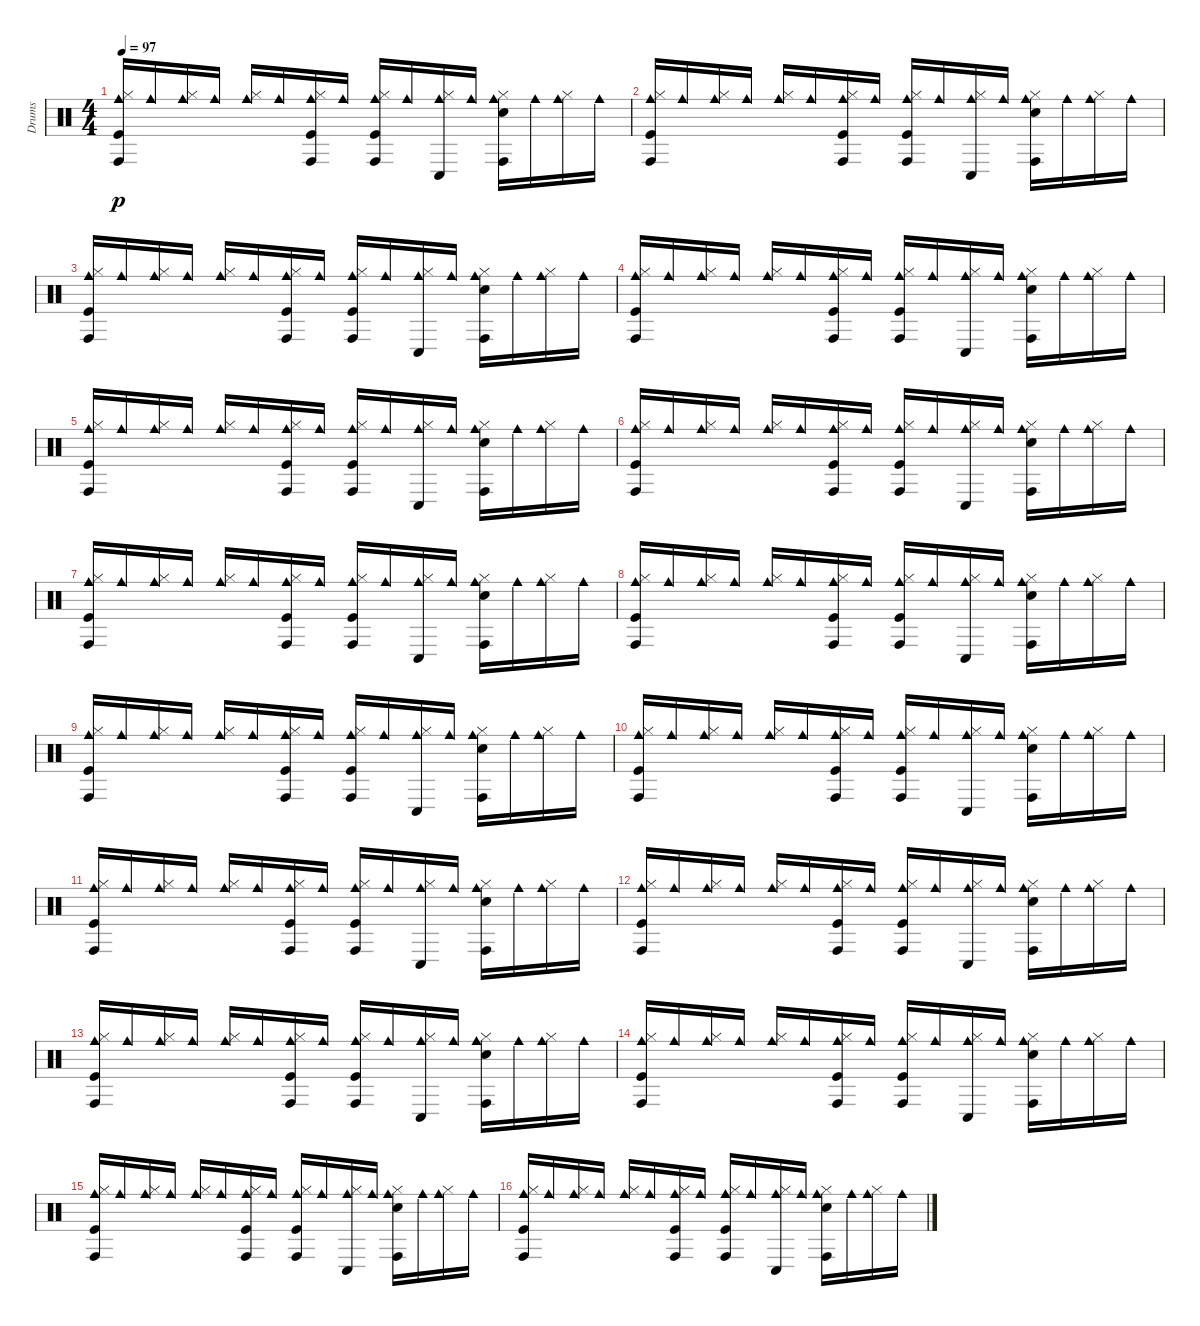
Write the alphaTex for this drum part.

\track ("Drums" "Drums") {instrument percussion}
\staff {score}
\articulation defaults
\ts (4 4)
\tempo 97
\clef neutral
\ks c
("Kick (hit)" "Hi-Hat (closed)" "Cowbell medium (hit)" "Conga high (hit)").16{dy p} "Cowbell medium (hit)".16 ("Hi-Hat (closed)" "Cowbell medium (hit)").16 "Cowbell medium (hit)".16 ("Hi-Hat (closed)" "Cowbell medium (hit)").16 "Cowbell medium (hit)".16 ("Kick (hit)" "Hi-Hat (closed)" "Cowbell medium (hit)" "Conga high (hit)").16 "Cowbell medium (hit)".16 ("Kick (hit)" "Hi-Hat (closed)" "Cowbell medium (hit)" "Conga high (hit)").16 "Cowbell medium (hit)".16 ("Conga low (hit)" "Hi-Hat (closed)" "Cowbell medium (hit)").16 "Cowbell medium (hit)".16 ("Conga high (hit)" "Snare (hit) 2" "Hi-Hat (closed)" "Cowbell medium (hit)").16 "Cowbell medium (hit)".16 ("Hi-Hat (closed)" "Cowbell medium (hit)").16 "Cowbell medium (hit)".16 |
("Kick (hit)" "Hi-Hat (closed)" "Cowbell medium (hit)" "Conga high (hit)").16 "Cowbell medium (hit)".16 ("Hi-Hat (closed)" "Cowbell medium (hit)").16 "Cowbell medium (hit)".16 ("Hi-Hat (closed)" "Cowbell medium (hit)").16 "Cowbell medium (hit)".16 ("Kick (hit)" "Hi-Hat (closed)" "Cowbell medium (hit)" "Conga high (hit)").16 "Cowbell medium (hit)".16 ("Kick (hit)" "Hi-Hat (closed)" "Cowbell medium (hit)" "Conga high (hit)").16 "Cowbell medium (hit)".16 ("Conga low (hit)" "Hi-Hat (closed)" "Cowbell medium (hit)").16 "Cowbell medium (hit)".16 ("Conga high (hit)" "Snare (hit) 2" "Hi-Hat (closed)" "Cowbell medium (hit)").16 "Cowbell medium (hit)".16 ("Hi-Hat (closed)" "Cowbell medium (hit)").16 "Cowbell medium (hit)".16 |
("Kick (hit)" "Hi-Hat (closed)" "Cowbell medium (hit)" "Conga high (hit)").16 "Cowbell medium (hit)".16 ("Hi-Hat (closed)" "Cowbell medium (hit)").16 "Cowbell medium (hit)".16 ("Hi-Hat (closed)" "Cowbell medium (hit)").16 "Cowbell medium (hit)".16 ("Kick (hit)" "Hi-Hat (closed)" "Cowbell medium (hit)" "Conga high (hit)").16 "Cowbell medium (hit)".16 ("Kick (hit)" "Hi-Hat (closed)" "Cowbell medium (hit)" "Conga high (hit)").16 "Cowbell medium (hit)".16 ("Conga low (hit)" "Hi-Hat (closed)" "Cowbell medium (hit)").16 "Cowbell medium (hit)".16 ("Conga high (hit)" "Snare (hit) 2" "Hi-Hat (closed)" "Cowbell medium (hit)").16 "Cowbell medium (hit)".16 ("Hi-Hat (closed)" "Cowbell medium (hit)").16 "Cowbell medium (hit)".16 |
("Kick (hit)" "Hi-Hat (closed)" "Cowbell medium (hit)" "Conga high (hit)").16 "Cowbell medium (hit)".16 ("Hi-Hat (closed)" "Cowbell medium (hit)").16 "Cowbell medium (hit)".16 ("Hi-Hat (closed)" "Cowbell medium (hit)").16 "Cowbell medium (hit)".16 ("Kick (hit)" "Hi-Hat (closed)" "Cowbell medium (hit)" "Conga high (hit)").16 "Cowbell medium (hit)".16 ("Kick (hit)" "Hi-Hat (closed)" "Cowbell medium (hit)" "Conga high (hit)").16 "Cowbell medium (hit)".16 ("Conga low (hit)" "Hi-Hat (closed)" "Cowbell medium (hit)").16 "Cowbell medium (hit)".16 ("Conga high (hit)" "Snare (hit) 2" "Hi-Hat (closed)" "Cowbell medium (hit)").16 "Cowbell medium (hit)".16 ("Hi-Hat (closed)" "Cowbell medium (hit)").16 "Cowbell medium (hit)".16 |
("Kick (hit)" "Hi-Hat (closed)" "Cowbell medium (hit)" "Conga high (hit)").16 "Cowbell medium (hit)".16 ("Hi-Hat (closed)" "Cowbell medium (hit)").16 "Cowbell medium (hit)".16 ("Hi-Hat (closed)" "Cowbell medium (hit)").16 "Cowbell medium (hit)".16 ("Kick (hit)" "Hi-Hat (closed)" "Cowbell medium (hit)" "Conga high (hit)").16 "Cowbell medium (hit)".16 ("Kick (hit)" "Hi-Hat (closed)" "Cowbell medium (hit)" "Conga high (hit)").16 "Cowbell medium (hit)".16 ("Conga low (hit)" "Hi-Hat (closed)" "Cowbell medium (hit)").16 "Cowbell medium (hit)".16 ("Conga high (hit)" "Snare (hit) 2" "Hi-Hat (closed)" "Cowbell medium (hit)").16 "Cowbell medium (hit)".16 ("Hi-Hat (closed)" "Cowbell medium (hit)").16 "Cowbell medium (hit)".16 |
("Kick (hit)" "Hi-Hat (closed)" "Cowbell medium (hit)" "Conga high (hit)").16 "Cowbell medium (hit)".16 ("Hi-Hat (closed)" "Cowbell medium (hit)").16 "Cowbell medium (hit)".16 ("Hi-Hat (closed)" "Cowbell medium (hit)").16 "Cowbell medium (hit)".16 ("Kick (hit)" "Hi-Hat (closed)" "Cowbell medium (hit)" "Conga high (hit)").16 "Cowbell medium (hit)".16 ("Kick (hit)" "Hi-Hat (closed)" "Cowbell medium (hit)" "Conga high (hit)").16 "Cowbell medium (hit)".16 ("Conga low (hit)" "Hi-Hat (closed)" "Cowbell medium (hit)").16 "Cowbell medium (hit)".16 ("Conga high (hit)" "Snare (hit) 2" "Hi-Hat (closed)" "Cowbell medium (hit)").16 "Cowbell medium (hit)".16 ("Hi-Hat (closed)" "Cowbell medium (hit)").16 "Cowbell medium (hit)".16 |
("Kick (hit)" "Hi-Hat (closed)" "Cowbell medium (hit)" "Conga high (hit)").16 "Cowbell medium (hit)".16 ("Hi-Hat (closed)" "Cowbell medium (hit)").16 "Cowbell medium (hit)".16 ("Hi-Hat (closed)" "Cowbell medium (hit)").16 "Cowbell medium (hit)".16 ("Kick (hit)" "Hi-Hat (closed)" "Cowbell medium (hit)" "Conga high (hit)").16 "Cowbell medium (hit)".16 ("Kick (hit)" "Hi-Hat (closed)" "Cowbell medium (hit)" "Conga high (hit)").16 "Cowbell medium (hit)".16 ("Conga low (hit)" "Hi-Hat (closed)" "Cowbell medium (hit)").16 "Cowbell medium (hit)".16 ("Conga high (hit)" "Snare (hit) 2" "Hi-Hat (closed)" "Cowbell medium (hit)").16 "Cowbell medium (hit)".16 ("Hi-Hat (closed)" "Cowbell medium (hit)").16 "Cowbell medium (hit)".16 |
("Kick (hit)" "Hi-Hat (closed)" "Cowbell medium (hit)" "Conga high (hit)").16 "Cowbell medium (hit)".16 ("Hi-Hat (closed)" "Cowbell medium (hit)").16 "Cowbell medium (hit)".16 ("Hi-Hat (closed)" "Cowbell medium (hit)").16 "Cowbell medium (hit)".16 ("Kick (hit)" "Hi-Hat (closed)" "Cowbell medium (hit)" "Conga high (hit)").16 "Cowbell medium (hit)".16 ("Kick (hit)" "Hi-Hat (closed)" "Cowbell medium (hit)" "Conga high (hit)").16 "Cowbell medium (hit)".16 ("Conga low (hit)" "Hi-Hat (closed)" "Cowbell medium (hit)").16 "Cowbell medium (hit)".16 ("Conga high (hit)" "Snare (hit) 2" "Hi-Hat (closed)" "Cowbell medium (hit)").16 "Cowbell medium (hit)".16 ("Hi-Hat (closed)" "Cowbell medium (hit)").16 "Cowbell medium (hit)".16 |
("Kick (hit)" "Hi-Hat (closed)" "Cowbell medium (hit)" "Conga high (hit)").16 "Cowbell medium (hit)".16 ("Hi-Hat (closed)" "Cowbell medium (hit)").16 "Cowbell medium (hit)".16 ("Hi-Hat (closed)" "Cowbell medium (hit)").16 "Cowbell medium (hit)".16 ("Kick (hit)" "Hi-Hat (closed)" "Cowbell medium (hit)" "Conga high (hit)").16 "Cowbell medium (hit)".16 ("Kick (hit)" "Hi-Hat (closed)" "Cowbell medium (hit)" "Conga high (hit)").16 "Cowbell medium (hit)".16 ("Conga low (hit)" "Hi-Hat (closed)" "Cowbell medium (hit)").16 "Cowbell medium (hit)".16 ("Conga high (hit)" "Snare (hit) 2" "Hi-Hat (closed)" "Cowbell medium (hit)").16 "Cowbell medium (hit)".16 ("Hi-Hat (closed)" "Cowbell medium (hit)").16 "Cowbell medium (hit)".16 |
("Kick (hit)" "Hi-Hat (closed)" "Cowbell medium (hit)" "Conga high (hit)").16 "Cowbell medium (hit)".16 ("Hi-Hat (closed)" "Cowbell medium (hit)").16 "Cowbell medium (hit)".16 ("Hi-Hat (closed)" "Cowbell medium (hit)").16 "Cowbell medium (hit)".16 ("Kick (hit)" "Hi-Hat (closed)" "Cowbell medium (hit)" "Conga high (hit)").16 "Cowbell medium (hit)".16 ("Kick (hit)" "Hi-Hat (closed)" "Cowbell medium (hit)" "Conga high (hit)").16 "Cowbell medium (hit)".16 ("Conga low (hit)" "Hi-Hat (closed)" "Cowbell medium (hit)").16 "Cowbell medium (hit)".16 ("Conga high (hit)" "Snare (hit) 2" "Hi-Hat (closed)" "Cowbell medium (hit)").16 "Cowbell medium (hit)".16 ("Hi-Hat (closed)" "Cowbell medium (hit)").16 "Cowbell medium (hit)".16 |
("Kick (hit)" "Hi-Hat (closed)" "Cowbell medium (hit)" "Conga high (hit)").16 "Cowbell medium (hit)".16 ("Hi-Hat (closed)" "Cowbell medium (hit)").16 "Cowbell medium (hit)".16 ("Hi-Hat (closed)" "Cowbell medium (hit)").16 "Cowbell medium (hit)".16 ("Kick (hit)" "Hi-Hat (closed)" "Cowbell medium (hit)" "Conga high (hit)").16 "Cowbell medium (hit)".16 ("Kick (hit)" "Hi-Hat (closed)" "Cowbell medium (hit)" "Conga high (hit)").16 "Cowbell medium (hit)".16 ("Conga low (hit)" "Hi-Hat (closed)" "Cowbell medium (hit)").16 "Cowbell medium (hit)".16 ("Conga high (hit)" "Snare (hit) 2" "Hi-Hat (closed)" "Cowbell medium (hit)").16 "Cowbell medium (hit)".16 ("Hi-Hat (closed)" "Cowbell medium (hit)").16 "Cowbell medium (hit)".16 |
("Kick (hit)" "Hi-Hat (closed)" "Cowbell medium (hit)" "Conga high (hit)").16 "Cowbell medium (hit)".16 ("Hi-Hat (closed)" "Cowbell medium (hit)").16 "Cowbell medium (hit)".16 ("Hi-Hat (closed)" "Cowbell medium (hit)").16 "Cowbell medium (hit)".16 ("Kick (hit)" "Hi-Hat (closed)" "Cowbell medium (hit)" "Conga high (hit)").16 "Cowbell medium (hit)".16 ("Kick (hit)" "Hi-Hat (closed)" "Cowbell medium (hit)" "Conga high (hit)").16 "Cowbell medium (hit)".16 ("Conga low (hit)" "Hi-Hat (closed)" "Cowbell medium (hit)").16 "Cowbell medium (hit)".16 ("Conga high (hit)" "Snare (hit) 2" "Hi-Hat (closed)" "Cowbell medium (hit)").16 "Cowbell medium (hit)".16 ("Hi-Hat (closed)" "Cowbell medium (hit)").16 "Cowbell medium (hit)".16 |
("Kick (hit)" "Hi-Hat (closed)" "Cowbell medium (hit)" "Conga high (hit)").16 "Cowbell medium (hit)".16 ("Hi-Hat (closed)" "Cowbell medium (hit)").16 "Cowbell medium (hit)".16 ("Hi-Hat (closed)" "Cowbell medium (hit)").16 "Cowbell medium (hit)".16 ("Kick (hit)" "Hi-Hat (closed)" "Cowbell medium (hit)" "Conga high (hit)").16 "Cowbell medium (hit)".16 ("Kick (hit)" "Hi-Hat (closed)" "Cowbell medium (hit)" "Conga high (hit)").16 "Cowbell medium (hit)".16 ("Conga low (hit)" "Hi-Hat (closed)" "Cowbell medium (hit)").16 "Cowbell medium (hit)".16 ("Conga high (hit)" "Snare (hit) 2" "Hi-Hat (closed)" "Cowbell medium (hit)").16 "Cowbell medium (hit)".16 ("Hi-Hat (closed)" "Cowbell medium (hit)").16 "Cowbell medium (hit)".16 |
("Kick (hit)" "Hi-Hat (closed)" "Cowbell medium (hit)" "Conga high (hit)").16 "Cowbell medium (hit)".16 ("Hi-Hat (closed)" "Cowbell medium (hit)").16 "Cowbell medium (hit)".16 ("Hi-Hat (closed)" "Cowbell medium (hit)").16 "Cowbell medium (hit)".16 ("Kick (hit)" "Hi-Hat (closed)" "Cowbell medium (hit)" "Conga high (hit)").16 "Cowbell medium (hit)".16 ("Kick (hit)" "Hi-Hat (closed)" "Cowbell medium (hit)" "Conga high (hit)").16 "Cowbell medium (hit)".16 ("Conga low (hit)" "Hi-Hat (closed)" "Cowbell medium (hit)").16 "Cowbell medium (hit)".16 ("Conga high (hit)" "Snare (hit) 2" "Hi-Hat (closed)" "Cowbell medium (hit)").16 "Cowbell medium (hit)".16 ("Hi-Hat (closed)" "Cowbell medium (hit)").16 "Cowbell medium (hit)".16 |
("Kick (hit)" "Hi-Hat (closed)" "Cowbell medium (hit)" "Conga high (hit)").16 "Cowbell medium (hit)".16 ("Hi-Hat (closed)" "Cowbell medium (hit)").16 "Cowbell medium (hit)".16 ("Hi-Hat (closed)" "Cowbell medium (hit)").16 "Cowbell medium (hit)".16 ("Kick (hit)" "Hi-Hat (closed)" "Cowbell medium (hit)" "Conga high (hit)").16 "Cowbell medium (hit)".16 ("Kick (hit)" "Hi-Hat (closed)" "Cowbell medium (hit)" "Conga high (hit)").16 "Cowbell medium (hit)".16 ("Conga low (hit)" "Hi-Hat (closed)" "Cowbell medium (hit)").16 "Cowbell medium (hit)".16 ("Conga high (hit)" "Snare (hit) 2" "Hi-Hat (closed)" "Cowbell medium (hit)").16 "Cowbell medium (hit)".16 ("Hi-Hat (closed)" "Cowbell medium (hit)").16 "Cowbell medium (hit)".16 |
("Kick (hit)" "Hi-Hat (closed)" "Cowbell medium (hit)" "Conga high (hit)").16 "Cowbell medium (hit)".16 ("Hi-Hat (closed)" "Cowbell medium (hit)").16 "Cowbell medium (hit)".16 ("Hi-Hat (closed)" "Cowbell medium (hit)").16 "Cowbell medium (hit)".16 ("Kick (hit)" "Hi-Hat (closed)" "Cowbell medium (hit)" "Conga high (hit)").16 "Cowbell medium (hit)".16 ("Kick (hit)" "Hi-Hat (closed)" "Cowbell medium (hit)" "Conga high (hit)").16 "Cowbell medium (hit)".16 ("Conga low (hit)" "Hi-Hat (closed)" "Cowbell medium (hit)").16 "Cowbell medium (hit)".16 ("Conga high (hit)" "Snare (hit) 2" "Hi-Hat (closed)" "Cowbell medium (hit)").16 "Cowbell medium (hit)".16 ("Hi-Hat (closed)" "Cowbell medium (hit)").16 "Cowbell medium (hit)".16
